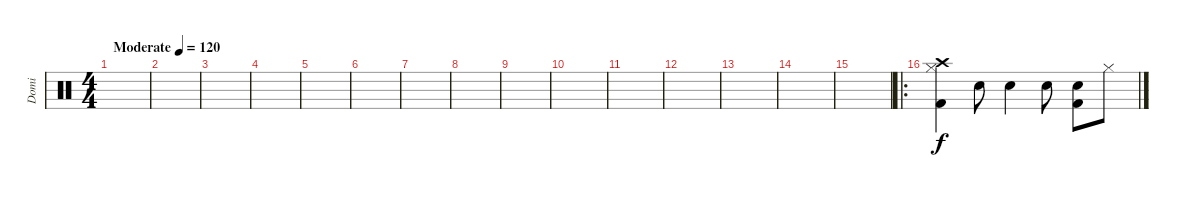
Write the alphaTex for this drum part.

\track ("Domi" "Domi") {instrument percussion}
\staff {score}
\articulation defaults
\ts (4 4)
\tempo (120 "Moderate")
\clef neutral
\ks c
|
|
|
|
|
|
|
|
|
|
|
|
|
|
|
\ro
("Crash high (hit)" "Hi-Hat (closed)" "Kick (hit) 2").4 "Snare (hit) 2".8 "Snare (hit) 2".4 "Snare (hit) 2".8 ("Snare (hit) 2" "Kick (hit) 2").8 "Hi-Hat (closed)".8
